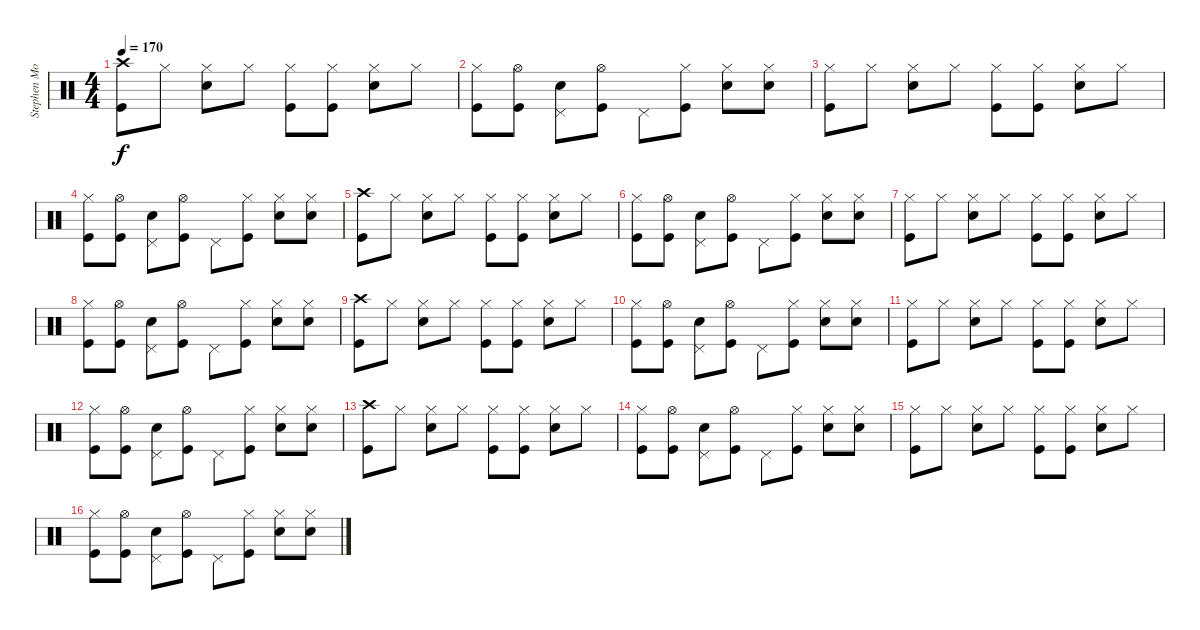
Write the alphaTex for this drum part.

\track ("Stephen Morris (Drums)" "Stephen Mo") {instrument percussion}
\staff {score}
\articulation defaults
\ts (4 4)
\tempo 170
\clef neutral
\ks c
("Crash high (hit)" "Kick (hit)").8{dy f} "Hi-Hat (closed)".8 ("Hi-Hat (closed)" "Electric Snare (hit)").8 "Hi-Hat (closed)".8 ("Hi-Hat (closed)" "Kick (hit)").8 ("Hi-Hat (closed)" "Kick (hit)").8 ("Hi-Hat (closed)" "Electric Snare (hit)").8 "Hi-Hat (closed)".8 |
("Hi-Hat (closed)" "Kick (hit)").8 ("Hi-Hat (open)" "Kick (hit)").8 ("Pedal Hi-Hat (hit)" "Electric Snare (hit)").8 ("Hi-Hat (open)" "Kick (hit)").8 "Pedal Hi-Hat (hit)".8 ("Hi-Hat (closed)" "Kick (hit)").8 ("Hi-Hat (closed)" "Electric Snare (hit)").8 ("Hi-Hat (closed)" "Electric Snare (hit)").8 |
("Hi-Hat (closed)" "Kick (hit)").8 "Hi-Hat (closed)".8 ("Hi-Hat (closed)" "Electric Snare (hit)").8 "Hi-Hat (closed)".8 ("Hi-Hat (closed)" "Kick (hit)").8 ("Hi-Hat (closed)" "Kick (hit)").8 ("Hi-Hat (closed)" "Electric Snare (hit)").8 "Hi-Hat (closed)".8 |
("Hi-Hat (closed)" "Kick (hit)").8 ("Hi-Hat (open)" "Kick (hit)").8 ("Pedal Hi-Hat (hit)" "Electric Snare (hit)").8 ("Hi-Hat (open)" "Kick (hit)").8 "Pedal Hi-Hat (hit)".8 ("Hi-Hat (closed)" "Kick (hit)").8 ("Hi-Hat (closed)" "Electric Snare (hit)").8 ("Hi-Hat (closed)" "Electric Snare (hit)").8 |
("Crash high (hit)" "Kick (hit)").8 "Hi-Hat (closed)".8 ("Hi-Hat (closed)" "Electric Snare (hit)").8 "Hi-Hat (closed)".8 ("Hi-Hat (closed)" "Kick (hit)").8 ("Hi-Hat (closed)" "Kick (hit)").8 ("Hi-Hat (closed)" "Electric Snare (hit)").8 "Hi-Hat (closed)".8 |
("Hi-Hat (closed)" "Kick (hit)").8 ("Hi-Hat (open)" "Kick (hit)").8 ("Pedal Hi-Hat (hit)" "Electric Snare (hit)").8 ("Hi-Hat (open)" "Kick (hit)").8 "Pedal Hi-Hat (hit)".8 ("Hi-Hat (closed)" "Kick (hit)").8 ("Hi-Hat (closed)" "Electric Snare (hit)").8 ("Hi-Hat (closed)" "Electric Snare (hit)").8 |
("Hi-Hat (closed)" "Kick (hit)").8 "Hi-Hat (closed)".8 ("Hi-Hat (closed)" "Electric Snare (hit)").8 "Hi-Hat (closed)".8 ("Hi-Hat (closed)" "Kick (hit)").8 ("Hi-Hat (closed)" "Kick (hit)").8 ("Hi-Hat (closed)" "Electric Snare (hit)").8 "Hi-Hat (closed)".8 |
("Hi-Hat (closed)" "Kick (hit)").8 ("Hi-Hat (open)" "Kick (hit)").8 ("Pedal Hi-Hat (hit)" "Electric Snare (hit)").8 ("Hi-Hat (open)" "Kick (hit)").8 "Pedal Hi-Hat (hit)".8 ("Hi-Hat (closed)" "Kick (hit)").8 ("Hi-Hat (closed)" "Electric Snare (hit)").8 ("Hi-Hat (closed)" "Electric Snare (hit)").8 |
("Crash high (hit)" "Kick (hit)").8 "Hi-Hat (closed)".8 ("Hi-Hat (closed)" "Electric Snare (hit)").8 "Hi-Hat (closed)".8 ("Hi-Hat (closed)" "Kick (hit)").8 ("Hi-Hat (closed)" "Kick (hit)").8 ("Hi-Hat (closed)" "Electric Snare (hit)").8 "Hi-Hat (closed)".8 |
("Hi-Hat (closed)" "Kick (hit)").8 ("Hi-Hat (open)" "Kick (hit)").8 ("Pedal Hi-Hat (hit)" "Electric Snare (hit)").8 ("Hi-Hat (open)" "Kick (hit)").8 "Pedal Hi-Hat (hit)".8 ("Hi-Hat (closed)" "Kick (hit)").8 ("Hi-Hat (closed)" "Electric Snare (hit)").8 ("Hi-Hat (closed)" "Electric Snare (hit)").8 |
("Hi-Hat (closed)" "Kick (hit)").8 "Hi-Hat (closed)".8 ("Hi-Hat (closed)" "Electric Snare (hit)").8 "Hi-Hat (closed)".8 ("Hi-Hat (closed)" "Kick (hit)").8 ("Hi-Hat (closed)" "Kick (hit)").8 ("Hi-Hat (closed)" "Electric Snare (hit)").8 "Hi-Hat (closed)".8 |
("Hi-Hat (closed)" "Kick (hit)").8 ("Hi-Hat (open)" "Kick (hit)").8 ("Pedal Hi-Hat (hit)" "Electric Snare (hit)").8 ("Hi-Hat (open)" "Kick (hit)").8 "Pedal Hi-Hat (hit)".8 ("Hi-Hat (closed)" "Kick (hit)").8 ("Hi-Hat (closed)" "Electric Snare (hit)").8 ("Hi-Hat (closed)" "Electric Snare (hit)").8 |
("Crash high (hit)" "Kick (hit)").8 "Hi-Hat (closed)".8 ("Hi-Hat (closed)" "Electric Snare (hit)").8 "Hi-Hat (closed)".8 ("Hi-Hat (closed)" "Kick (hit)").8 ("Hi-Hat (closed)" "Kick (hit)").8 ("Hi-Hat (closed)" "Electric Snare (hit)").8 "Hi-Hat (closed)".8 |
("Hi-Hat (closed)" "Kick (hit)").8 ("Hi-Hat (open)" "Kick (hit)").8 ("Pedal Hi-Hat (hit)" "Electric Snare (hit)").8 ("Hi-Hat (open)" "Kick (hit)").8 "Pedal Hi-Hat (hit)".8 ("Hi-Hat (closed)" "Kick (hit)").8 ("Hi-Hat (closed)" "Electric Snare (hit)").8 ("Hi-Hat (closed)" "Electric Snare (hit)").8 |
("Hi-Hat (closed)" "Kick (hit)").8 "Hi-Hat (closed)".8 ("Hi-Hat (closed)" "Electric Snare (hit)").8 "Hi-Hat (closed)".8 ("Hi-Hat (closed)" "Kick (hit)").8 ("Hi-Hat (closed)" "Kick (hit)").8 ("Hi-Hat (closed)" "Electric Snare (hit)").8 "Hi-Hat (closed)".8 |
("Hi-Hat (closed)" "Kick (hit)").8 ("Hi-Hat (open)" "Kick (hit)").8 ("Pedal Hi-Hat (hit)" "Electric Snare (hit)").8 ("Hi-Hat (open)" "Kick (hit)").8 "Pedal Hi-Hat (hit)".8 ("Hi-Hat (closed)" "Kick (hit)").8 ("Hi-Hat (closed)" "Electric Snare (hit)").8 ("Hi-Hat (closed)" "Electric Snare (hit)").8
